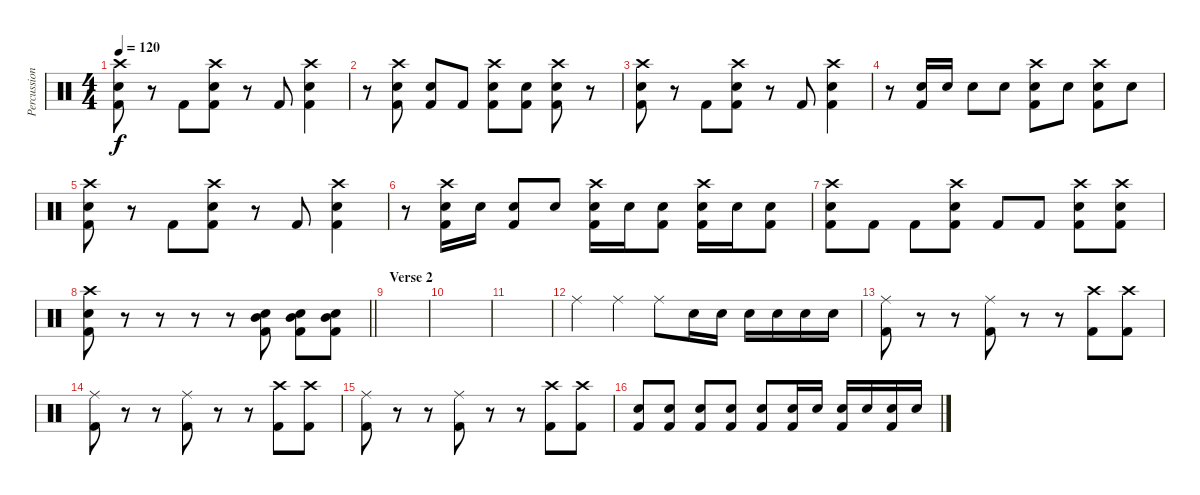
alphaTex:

\track ("Percussion" "Percussion") {instrument percussion}
\staff {score}
\articulation defaults
\ts (4 4)
\tempo 120
\clef neutral
\ks c
("Crash high (hit)" "Electric Snare (hit)" "Kick (hit) 2").8{dy f} r.8 "Kick (hit) 2".8 ("Crash high (hit)" "Electric Snare (hit)" "Kick (hit) 2").8 r.8 "Kick (hit) 2".8 ("Crash high (hit)" "Electric Snare (hit)" "Kick (hit) 2").4 |
r.8 ("Crash high (hit)" "Electric Snare (hit)" "Kick (hit) 2").8 ("Electric Snare (hit)" "Kick (hit) 2").8 "Kick (hit) 2".8 ("Crash high (hit)" "Electric Snare (hit)" "Kick (hit) 2").8 ("Electric Snare (hit)" "Kick (hit) 2").8 ("Crash high (hit)" "Electric Snare (hit)" "Kick (hit) 2").8 r.8 |
("Crash high (hit)" "Electric Snare (hit)" "Kick (hit) 2").8 r.8 "Kick (hit) 2".8 ("Crash high (hit)" "Electric Snare (hit)" "Kick (hit) 2").8 r.8 "Kick (hit) 2".8 ("Crash high (hit)" "Electric Snare (hit)" "Kick (hit) 2").4 |
r.8 ("Electric Snare (hit)" "Kick (hit) 2").16 "Electric Snare (hit)".16 "Electric Snare (hit)".8 "Electric Snare (hit)".8 ("Crash high (hit)" "Electric Snare (hit)" "Kick (hit) 2").8 "Electric Snare (hit)".8 ("Crash high (hit)" "Electric Snare (hit)" "Kick (hit) 2").8 "Electric Snare (hit)".8 |
("Crash high (hit)" "Electric Snare (hit)" "Kick (hit) 2").8 r.8 "Kick (hit) 2".8 ("Crash high (hit)" "Electric Snare (hit)" "Kick (hit) 2").8 r.8 "Kick (hit) 2".8 ("Crash high (hit)" "Electric Snare (hit)" "Kick (hit) 2").4 |
r.8 ("Crash high (hit)" "Electric Snare (hit)" "Kick (hit) 2").16 "Electric Snare (hit)".16 ("Electric Snare (hit)" "Kick (hit) 2").8 "Electric Snare (hit)".8 ("Crash high (hit)" "Electric Snare (hit)" "Kick (hit) 2").16 "Electric Snare (hit)".16 ("Electric Snare (hit)" "Kick (hit) 2").8 ("Crash high (hit)" "Electric Snare (hit)" "Kick (hit) 2").16 "Electric Snare (hit)".16 ("Electric Snare (hit)" "Kick (hit) 2").8 |
("Crash high (hit)" "Electric Snare (hit)" "Kick (hit) 2").8 "Kick (hit) 2".8 "Kick (hit) 2".8 ("Crash high (hit)" "Electric Snare (hit)" "Kick (hit) 2").8 "Kick (hit) 2".8 "Kick (hit) 2".8 ("Crash high (hit)" "Electric Snare (hit)" "Kick (hit) 2").8 ("Crash high (hit)" "Electric Snare (hit)" "Kick (hit) 2").8 |
\barLineRight lightlight
("Crash high (hit)" "Electric Snare (hit)" "Kick (hit) 2").8 r.8 r.8 r.8 r.8 ("Mid Tom (hit)" "Electric Snare (hit)" "Kick (hit) 2").8 ("Mid Tom (hit)" "Electric Snare (hit)" "Kick (hit) 2").8 ("Mid Tom (hit)" "Electric Snare (hit)" "Kick (hit) 2").8 |
\section ("" "Verse 2")
|
|
|
"Ride (middle)".4 "Ride (middle)".4 "Ride (middle)".8 "Electric Snare (hit)".16 "Electric Snare (hit)".16 "Electric Snare (hit)".16 "Electric Snare (hit)".16 "Electric Snare (hit)".16 "Electric Snare (hit)".16 |
("Ride (middle)" "Kick (hit) 2").8 r.8 r.8 ("Ride (middle)" "Kick (hit) 2").8 r.8 r.8 ("Crash high (hit)" "Kick (hit) 2").8 ("Crash high (hit)" "Kick (hit) 2").8 |
("Ride (middle)" "Kick (hit) 2").8 r.8 r.8 ("Ride (middle)" "Kick (hit) 2").8 r.8 r.8 ("Crash high (hit)" "Kick (hit) 2").8 ("Crash high (hit)" "Kick (hit) 2").8 |
("Ride (middle)" "Kick (hit) 2").8 r.8 r.8 ("Ride (middle)" "Kick (hit) 2").8 r.8 r.8 ("Crash high (hit)" "Kick (hit) 2").8 ("Crash high (hit)" "Kick (hit) 2").8 |
("Electric Snare (hit)" "Kick (hit) 2").8 ("Electric Snare (hit)" "Kick (hit) 2").8 ("Electric Snare (hit)" "Kick (hit) 2").8 ("Electric Snare (hit)" "Kick (hit) 2").8 ("Electric Snare (hit)" "Kick (hit) 2").8 ("Electric Snare (hit)" "Kick (hit) 2").16 "Electric Snare (hit)".16 ("Electric Snare (hit)" "Kick (hit) 2").16 "Electric Snare (hit)".16 ("Electric Snare (hit)" "Kick (hit) 2").16 "Electric Snare (hit)".16
